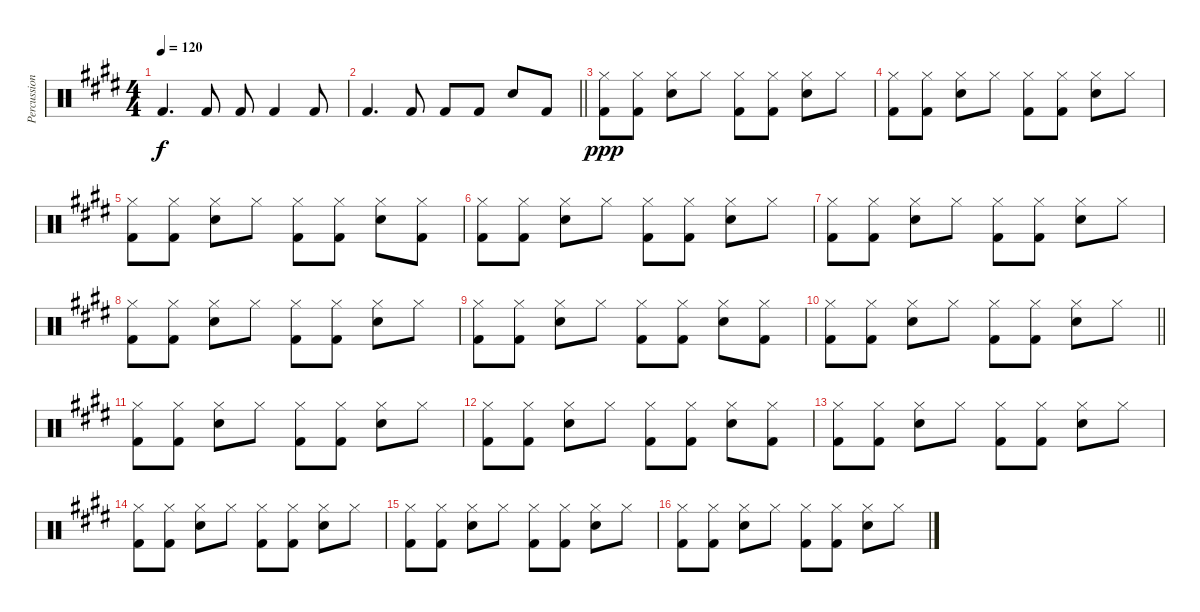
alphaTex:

\track ("Percussion" "Percussion") {solo instrument percussion}
\staff {score}
\articulation defaults
\ts (4 4)
\tempo 120
\clef neutral
\ks e "Kick (hit) 2".4{d dy f} "Kick (hit) 2".8 "Kick (hit) 2".8 "Kick (hit) 2".4 "Kick (hit) 2".8
|
\barLineRight lightlight "Kick (hit) 2".4{d} "Kick (hit) 2".8 "Kick (hit) 2".8 "Kick (hit) 2".8 "Snare (hit) 2".8 "Kick (hit) 2".8
|
("Hi-Hat (closed)" "Kick (hit) 2").8{dy ppp} ("Hi-Hat (closed)" "Kick (hit) 2").8 ("Hi-Hat (closed)" "Snare (hit) 2").8 "Hi-Hat (closed)".8 ("Hi-Hat (closed)" "Kick (hit) 2").8 ("Hi-Hat (closed)" "Kick (hit) 2").8 ("Hi-Hat (closed)" "Snare (hit) 2").8 "Hi-Hat (closed)".8 |
("Hi-Hat (closed)" "Kick (hit) 2").8 ("Hi-Hat (closed)" "Kick (hit) 2").8 ("Hi-Hat (closed)" "Snare (hit) 2").8 "Hi-Hat (closed)".8 ("Hi-Hat (closed)" "Kick (hit) 2").8 ("Hi-Hat (closed)" "Kick (hit) 2").8 ("Hi-Hat (closed)" "Snare (hit) 2").8 "Hi-Hat (closed)".8 |
("Hi-Hat (closed)" "Kick (hit) 2").8 ("Hi-Hat (closed)" "Kick (hit) 2").8 ("Hi-Hat (closed)" "Snare (hit) 2").8 "Hi-Hat (closed)".8 ("Hi-Hat (closed)" "Kick (hit) 2").8 ("Hi-Hat (closed)" "Kick (hit) 2").8 ("Hi-Hat (closed)" "Snare (hit) 2").8 ("Hi-Hat (closed)" "Kick (hit) 2").8 |
("Hi-Hat (closed)" "Kick (hit) 2").8 ("Hi-Hat (closed)" "Kick (hit) 2").8 ("Hi-Hat (closed)" "Snare (hit) 2").8 "Hi-Hat (closed)".8 ("Hi-Hat (closed)" "Kick (hit) 2").8 ("Hi-Hat (closed)" "Kick (hit) 2").8 ("Hi-Hat (closed)" "Snare (hit) 2").8 "Hi-Hat (closed)".8 |
("Hi-Hat (closed)" "Kick (hit) 2").8 ("Hi-Hat (closed)" "Kick (hit) 2").8 ("Hi-Hat (closed)" "Snare (hit) 2").8 "Hi-Hat (closed)".8 ("Hi-Hat (closed)" "Kick (hit) 2").8 ("Hi-Hat (closed)" "Kick (hit) 2").8 ("Hi-Hat (closed)" "Snare (hit) 2").8 "Hi-Hat (closed)".8 |
("Hi-Hat (closed)" "Kick (hit) 2").8 ("Hi-Hat (closed)" "Kick (hit) 2").8 ("Hi-Hat (closed)" "Snare (hit) 2").8 "Hi-Hat (closed)".8 ("Hi-Hat (closed)" "Kick (hit) 2").8 ("Hi-Hat (closed)" "Kick (hit) 2").8 ("Hi-Hat (closed)" "Snare (hit) 2").8 "Hi-Hat (closed)".8 |
("Hi-Hat (closed)" "Kick (hit) 2").8 ("Hi-Hat (closed)" "Kick (hit) 2").8 ("Hi-Hat (closed)" "Snare (hit) 2").8 "Hi-Hat (closed)".8 ("Hi-Hat (closed)" "Kick (hit) 2").8 ("Hi-Hat (closed)" "Kick (hit) 2").8 ("Hi-Hat (closed)" "Snare (hit) 2").8 ("Hi-Hat (closed)" "Kick (hit) 2").8 |
\barLineRight lightlight
("Hi-Hat (closed)" "Kick (hit) 2").8 ("Hi-Hat (closed)" "Kick (hit) 2").8 ("Hi-Hat (closed)" "Snare (hit) 2").8 "Hi-Hat (closed)".8 ("Hi-Hat (closed)" "Kick (hit) 2").8 ("Hi-Hat (closed)" "Kick (hit) 2").8 ("Hi-Hat (closed)" "Snare (hit) 2").8 "Hi-Hat (closed)".8 |
("Hi-Hat (closed)" "Kick (hit) 2").8 ("Hi-Hat (closed)" "Kick (hit) 2").8 ("Hi-Hat (closed)" "Snare (hit) 2").8 "Hi-Hat (closed)".8 ("Hi-Hat (closed)" "Kick (hit) 2").8 ("Hi-Hat (closed)" "Kick (hit) 2").8 ("Hi-Hat (closed)" "Snare (hit) 2").8 "Hi-Hat (closed)".8 |
("Hi-Hat (closed)" "Kick (hit) 2").8 ("Hi-Hat (closed)" "Kick (hit) 2").8 ("Hi-Hat (closed)" "Snare (hit) 2").8 "Hi-Hat (closed)".8 ("Hi-Hat (closed)" "Kick (hit) 2").8 ("Hi-Hat (closed)" "Kick (hit) 2").8 ("Hi-Hat (closed)" "Snare (hit) 2").8 ("Hi-Hat (closed)" "Kick (hit) 2").8 |
("Hi-Hat (closed)" "Kick (hit) 2").8 ("Hi-Hat (closed)" "Kick (hit) 2").8 ("Hi-Hat (closed)" "Snare (hit) 2").8 "Hi-Hat (closed)".8 ("Hi-Hat (closed)" "Kick (hit) 2").8 ("Hi-Hat (closed)" "Kick (hit) 2").8 ("Hi-Hat (closed)" "Snare (hit) 2").8 "Hi-Hat (closed)".8 |
("Hi-Hat (closed)" "Kick (hit) 2").8 ("Hi-Hat (closed)" "Kick (hit) 2").8 ("Hi-Hat (closed)" "Snare (hit) 2").8 "Hi-Hat (closed)".8 ("Hi-Hat (closed)" "Kick (hit) 2").8 ("Hi-Hat (closed)" "Kick (hit) 2").8 ("Hi-Hat (closed)" "Snare (hit) 2").8 "Hi-Hat (closed)".8 |
("Hi-Hat (closed)" "Kick (hit) 2").8 ("Hi-Hat (closed)" "Kick (hit) 2").8 ("Hi-Hat (closed)" "Snare (hit) 2").8 "Hi-Hat (closed)".8 ("Hi-Hat (closed)" "Kick (hit) 2").8 ("Hi-Hat (closed)" "Kick (hit) 2").8 ("Hi-Hat (closed)" "Snare (hit) 2").8 "Hi-Hat (closed)".8 |
("Hi-Hat (closed)" "Kick (hit) 2").8 ("Hi-Hat (closed)" "Kick (hit) 2").8 ("Hi-Hat (closed)" "Snare (hit) 2").8 "Hi-Hat (closed)".8 ("Hi-Hat (closed)" "Kick (hit) 2").8 ("Hi-Hat (closed)" "Kick (hit) 2").8 ("Hi-Hat (closed)" "Snare (hit) 2").8 "Hi-Hat (closed)".8
